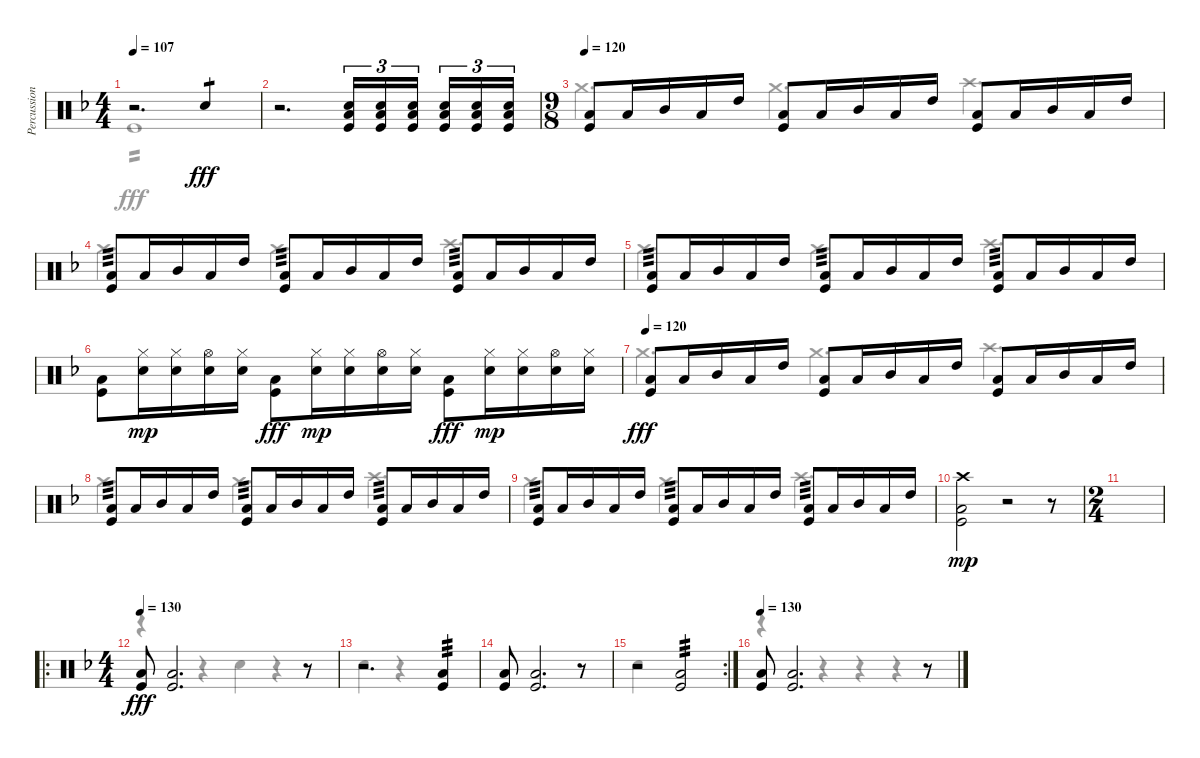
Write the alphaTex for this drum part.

\track ("Percussion" "Percussion") {instrument percussion}
\staff {score}
\articulation defaults
\voice
\ts (4 4)
\tempo 107
\clef neutral
\ks dminor
r.2{d dy fff} "Electric Snare (hit)".4{tp 1} |
r.2{d} ("Low Floor Tom (hit)" "Electric Snare (hit)" "Kick (hit)").16{tu (3 2)} ("Low Floor Tom (hit)" "Electric Snare (hit)" "Kick (hit)").16{tu (3 2)} ("Low Floor Tom (hit)" "Electric Snare (hit)" "Kick (hit)").16{tu (3 2) beam splitsecondary} ("Low Floor Tom (hit)" "Electric Snare (hit)" "Kick (hit)").16{tu (3 2)} ("Low Floor Tom (hit)" "Electric Snare (hit)" "Kick (hit)").16{tu (3 2)} ("Low Floor Tom (hit)" "Electric Snare (hit)" "Kick (hit)").16{tu (3 2)} |
\ts (9 8)
\tempo 120
("Low Floor Tom (hit)" "Kick (hit)").8 "Low Tom (hit)".16 "Mid Tom (hit)".16 "Low Tom (hit)".16 "High Tom (hit)".16 ("Low Floor Tom (hit)" "Kick (hit)").8 "Low Tom (hit)".16 "Mid Tom (hit)".16 "Low Tom (hit)".16 "High Tom (hit)".16 ("Low Floor Tom (hit)" "Kick (hit)").8 "Low Tom (hit)".16 "Mid Tom (hit)".16 "Low Tom (hit)".16 "High Tom (hit)".16 |
("Low Floor Tom (hit)" "Kick (hit)").8{tp 3} "Low Tom (hit)".16 "Mid Tom (hit)".16 "Low Tom (hit)".16 "High Tom (hit)".16 ("Low Floor Tom (hit)" "Kick (hit)").8{tp 3} "Low Tom (hit)".16 "Mid Tom (hit)".16 "Low Tom (hit)".16 "High Tom (hit)".16 ("Low Floor Tom (hit)" "Kick (hit)").8{tp 3} "Low Tom (hit)".16 "Mid Tom (hit)".16 "Low Tom (hit)".16 "High Tom (hit)".16 |
("Low Floor Tom (hit)" "Kick (hit)").8{tp 3} "Low Tom (hit)".16 "Mid Tom (hit)".16 "Low Tom (hit)".16 "High Tom (hit)".16 ("Low Floor Tom (hit)" "Kick (hit)").8{tp 3} "Low Tom (hit)".16 "Mid Tom (hit)".16 "Low Tom (hit)".16 "High Tom (hit)".16 ("Low Floor Tom (hit)" "Kick (hit)").8{tp 3} "Low Tom (hit)".16 "Mid Tom (hit)".16 "Low Tom (hit)".16 "High Tom (hit)".16 |
("Low Floor Tom (hit)" "Kick (hit)").8 ("Hi-Hat (closed)" "Electric Snare (hit)").16{dy mp} ("Hi-Hat (closed)" "Electric Snare (hit)").16 ("Hi-Hat (open)" "Electric Snare (hit)").16 ("Hi-Hat (closed)" "Electric Snare (hit)").16 ("Low Floor Tom (hit)" "Kick (hit)").8{dy fff} ("Hi-Hat (closed)" "Electric Snare (hit)").16{dy mp} ("Hi-Hat (closed)" "Electric Snare (hit)").16 ("Hi-Hat (open)" "Electric Snare (hit)").16 ("Hi-Hat (closed)" "Electric Snare (hit)").16 ("Low Floor Tom (hit)" "Kick (hit)").8{dy fff} ("Hi-Hat (closed)" "Electric Snare (hit)").16{dy mp} ("Hi-Hat (closed)" "Electric Snare (hit)").16 ("Hi-Hat (open)" "Electric Snare (hit)").16 ("Hi-Hat (closed)" "Electric Snare (hit)").16 |
\tempo 120
("Low Floor Tom (hit)" "Kick (hit)").8{dy fff} "Low Tom (hit)".16 "Mid Tom (hit)".16 "Low Tom (hit)".16 "High Tom (hit)".16 ("Low Floor Tom (hit)" "Kick (hit)").8 "Low Tom (hit)".16 "Mid Tom (hit)".16 "Low Tom (hit)".16 "High Tom (hit)".16 ("Low Floor Tom (hit)" "Kick (hit)").8 "Low Tom (hit)".16 "Mid Tom (hit)".16 "Low Tom (hit)".16 "High Tom (hit)".16 |
("Low Floor Tom (hit)" "Kick (hit)").8{tp 3} "Low Tom (hit)".16 "Mid Tom (hit)".16 "Low Tom (hit)".16 "High Tom (hit)".16 ("Low Floor Tom (hit)" "Kick (hit)").8{tp 3} "Low Tom (hit)".16 "Mid Tom (hit)".16 "Low Tom (hit)".16 "High Tom (hit)".16 ("Low Floor Tom (hit)" "Kick (hit)").8{tp 3} "Low Tom (hit)".16 "Mid Tom (hit)".16 "Low Tom (hit)".16 "High Tom (hit)".16 |
("Low Floor Tom (hit)" "Kick (hit)").8{tp 3} "Low Tom (hit)".16 "Mid Tom (hit)".16 "Low Tom (hit)".16 "High Tom (hit)".16 ("Low Floor Tom (hit)" "Kick (hit)").8{tp 3} "Low Tom (hit)".16 "Mid Tom (hit)".16 "Low Tom (hit)".16 "High Tom (hit)".16 ("Low Floor Tom (hit)" "Kick (hit)").8{tp 3} "Low Tom (hit)".16 "Mid Tom (hit)".16 "Low Tom (hit)".16 "High Tom (hit)".16 |
("Crash high (hit)" "Low Floor Tom (hit)" "Kick (hit)").2{dy mp} r.2 r.8 |
\ts (2 4)
|
\ro
\ts (4 4)
\tempo 130
("Low Floor Tom (hit)" "Kick (hit)").8{dy fff} ("Low Floor Tom (hit)" "Kick (hit)").2{d} r.8 |
r.2{d} ("Low Floor Tom (hit)" "Kick (hit)").4{tp 3} |
("Low Floor Tom (hit)" "Kick (hit)").8 ("Low Floor Tom (hit)" "Kick (hit)").2{d} r.8 |
\rc 2
r.2 ("Low Floor Tom (hit)" "Kick (hit)").2{tp 3} |
\tempo 130
("Low Floor Tom (hit)" "Kick (hit)").8 ("Low Floor Tom (hit)" "Kick (hit)").2{d} r.8
\voice
\clef neutral
\ottava regular
\simile none
\ks dminor "Kick (hit)".1{tp 2 dy fff}
|
|
"Crash medium (hit)".4{d} "Crash medium (hit)".4{d} "Crash high (hit)".4{d} |
"Crash medium (hit)".4{d} "Crash medium (hit)".4{d} "Crash high (hit)".4{d} |
"Crash medium (hit)".4{d} "Crash medium (hit)".4{d} "Crash high (hit)".4{d} |
|
"Crash medium (hit)".4{d} "Crash medium (hit)".4{d} "Crash high (hit)".4{d} |
"Crash medium (hit)".4{d} "Crash medium (hit)".4{d} "Crash high (hit)".4{d} |
"Crash medium (hit)".4{d} "Crash medium (hit)".4{d} "Crash high (hit)".4{d} |
|
|
r.4 r.4 "Electric Snare (hit)".4 r.4 |
"Electric Snare (hit)".4 r.4 |
|
"Electric Snare (hit)".4 |
r.4 r.4 r.4 r.4
